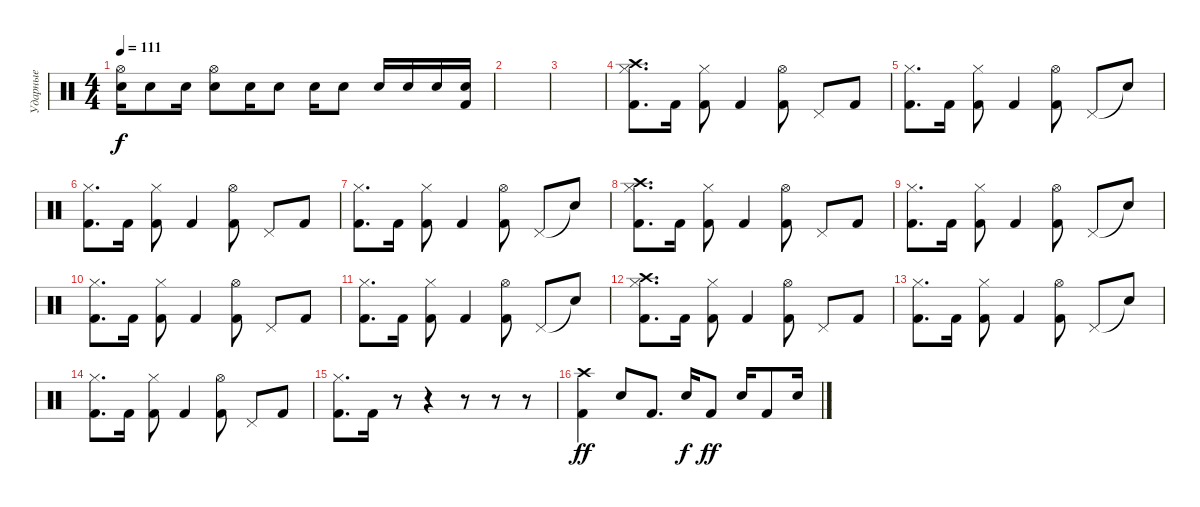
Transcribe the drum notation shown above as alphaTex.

\track ("Ударные" "Ударные") {instrument percussion}
\staff {score}
\articulation defaults
\ts (4 4)
\tempo 111
\clef neutral
\ks c
("Electric Snare (hit)" "Hi-Hat (open)").16{dy f} "Electric Snare (hit)".8 "Electric Snare (hit)".16 ("Hi-Hat (open)" "Electric Snare (hit)").8 "Electric Snare (hit)".16 "Electric Snare (hit)".8 "Electric Snare (hit)".16 "Electric Snare (hit)".8 "Electric Snare (hit)".16 "Electric Snare (hit)".16 "Snare (hit) 2".16 ("Snare (hit) 2" "Kick (hit) 2").16 |
|
|
("Crash high (hit)" "Kick (hit) 2" "Hi-Hat (closed)").8{d} "Kick (hit) 2".16 ("Kick (hit) 2" "Hi-Hat (closed)").8 "Kick (hit) 2".4 ("Kick (hit) 2" "Hi-Hat (open)").8 "Pedal Hi-Hat (hit)".8 "Kick (hit) 2".8 |
("Kick (hit) 2" "Hi-Hat (closed)").8{d} "Kick (hit) 2".16 ("Kick (hit) 2" "Hi-Hat (closed)").8 "Kick (hit) 2".4 ("Kick (hit) 2" "Hi-Hat (open)").8 "Pedal Hi-Hat (hit)".8 "Snare (hit)"{t}.8 |
("Kick (hit) 2" "Hi-Hat (closed)").8{d} "Kick (hit) 2".16 ("Kick (hit) 2" "Hi-Hat (closed)").8 "Kick (hit) 2".4 ("Kick (hit) 2" "Hi-Hat (open)").8 "Pedal Hi-Hat (hit)".8 "Kick (hit) 2".8 |
("Kick (hit) 2" "Hi-Hat (closed)").8{d} "Kick (hit) 2".16 ("Kick (hit) 2" "Hi-Hat (closed)").8 "Kick (hit) 2".4 ("Kick (hit) 2" "Hi-Hat (open)").8 "Pedal Hi-Hat (hit)".8 "Snare (hit)"{t}.8 |
("Crash high (hit)" "Kick (hit) 2" "Hi-Hat (closed)").8{d} "Kick (hit) 2".16 ("Kick (hit) 2" "Hi-Hat (closed)").8 "Kick (hit) 2".4 ("Kick (hit) 2" "Hi-Hat (open)").8 "Pedal Hi-Hat (hit)".8 "Kick (hit) 2".8 |
("Kick (hit) 2" "Hi-Hat (closed)").8{d} "Kick (hit) 2".16 ("Kick (hit) 2" "Hi-Hat (closed)").8 "Kick (hit) 2".4 ("Kick (hit) 2" "Hi-Hat (open)").8 "Pedal Hi-Hat (hit)".8 "Snare (hit)"{t}.8 |
("Kick (hit) 2" "Hi-Hat (closed)").8{d} "Kick (hit) 2".16 ("Kick (hit) 2" "Hi-Hat (closed)").8 "Kick (hit) 2".4 ("Kick (hit) 2" "Hi-Hat (open)").8 "Pedal Hi-Hat (hit)".8 "Kick (hit) 2".8 |
("Kick (hit) 2" "Hi-Hat (closed)").8{d} "Kick (hit) 2".16 ("Kick (hit) 2" "Hi-Hat (closed)").8 "Kick (hit) 2".4 ("Kick (hit) 2" "Hi-Hat (open)").8 "Pedal Hi-Hat (hit)".8 "Snare (hit)"{t}.8 |
("Crash high (hit)" "Kick (hit) 2" "Hi-Hat (closed)").8{d} "Kick (hit) 2".16 ("Kick (hit) 2" "Hi-Hat (closed)").8 "Kick (hit) 2".4 ("Kick (hit) 2" "Hi-Hat (open)").8 "Pedal Hi-Hat (hit)".8 "Kick (hit) 2".8 |
("Kick (hit) 2" "Hi-Hat (closed)").8{d} "Kick (hit) 2".16 ("Kick (hit) 2" "Hi-Hat (closed)").8 "Kick (hit) 2".4 ("Kick (hit) 2" "Hi-Hat (open)").8 "Pedal Hi-Hat (hit)".8 "Snare (hit)"{t}.8 |
("Kick (hit) 2" "Hi-Hat (closed)").8{d} "Kick (hit) 2".16 ("Kick (hit) 2" "Hi-Hat (closed)").8 "Kick (hit) 2".4 ("Kick (hit) 2" "Hi-Hat (open)").8 "Pedal Hi-Hat (hit)".8 "Kick (hit) 2".8 |
("Kick (hit) 2" "Hi-Hat (closed)").8{d} "Kick (hit) 2".16 r.8 r.4 r.8 r.8 r.8 |
("Crash high (hit)" "Kick (hit) 2").4{dy ff} "Snare (hit) 2".8 "Kick (hit) 2".8{d} "Snare (hit) 2".16{dy f} "Kick (hit) 2".8{dy ff} "Snare (hit) 2".16 "Kick (hit) 2".8 "Snare (hit) 2".16
